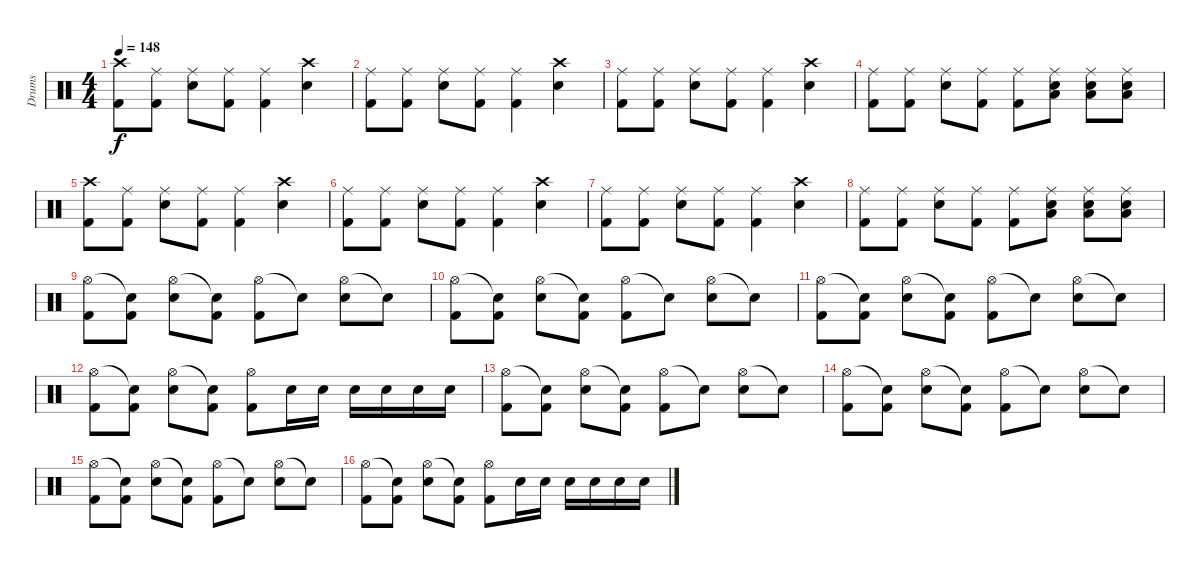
\track ("Drums" "Drums") {instrument percussion}
\staff {score}
\articulation defaults
\ts (4 4)
\tempo 148
\clef neutral
\ks c
("Crash high (hit)" "Kick (hit) 2").8{dy f} ("Ride (middle)" "Kick (hit) 2").8 ("Ride (middle)" "Snare (hit) 2").8 ("Ride (middle)" "Kick (hit) 2").8 ("Ride (middle)" "Kick (hit) 2").4 ("Crash high (hit)" "Snare (hit) 2").4 |
("Ride (middle)" "Kick (hit) 2").8 ("Ride (middle)" "Kick (hit) 2").8 ("Ride (middle)" "Snare (hit) 2").8 ("Ride (middle)" "Kick (hit) 2").8 ("Ride (middle)" "Kick (hit) 2").4 ("Crash high (hit)" "Snare (hit) 2").4 |
("Ride (middle)" "Kick (hit) 2").8 ("Ride (middle)" "Kick (hit) 2").8 ("Ride (middle)" "Snare (hit) 2").8 ("Ride (middle)" "Kick (hit) 2").8 ("Ride (middle)" "Kick (hit) 2").4 ("Crash high (hit)" "Snare (hit) 2").4 |
("Ride (middle)" "Kick (hit) 2").8 ("Ride (middle)" "Kick (hit) 2").8 ("Ride (middle)" "Snare (hit) 2").8 ("Ride (middle)" "Kick (hit) 2").8 ("Ride (middle)" "Kick (hit) 2").8 ("Ride (middle)" "Low Floor Tom (hit)" "Snare (hit) 2").8 ("Ride (middle)" "Low Floor Tom (hit)" "Snare (hit) 2").8 ("Ride (middle)" "Low Floor Tom (hit)" "Snare (hit) 2").8 |
("Crash high (hit)" "Kick (hit) 2").8 ("Ride (middle)" "Kick (hit) 2").8 ("Ride (middle)" "Snare (hit) 2").8 ("Ride (middle)" "Kick (hit) 2").8 ("Ride (middle)" "Kick (hit) 2").4 ("Crash high (hit)" "Snare (hit) 2").4 |
("Ride (middle)" "Kick (hit) 2").8 ("Ride (middle)" "Kick (hit) 2").8 ("Ride (middle)" "Snare (hit) 2").8 ("Ride (middle)" "Kick (hit) 2").8 ("Ride (middle)" "Kick (hit) 2").4 ("Crash high (hit)" "Snare (hit) 2").4 |
("Ride (middle)" "Kick (hit) 2").8 ("Ride (middle)" "Kick (hit) 2").8 ("Ride (middle)" "Snare (hit) 2").8 ("Ride (middle)" "Kick (hit) 2").8 ("Ride (middle)" "Kick (hit) 2").4 ("Crash high (hit)" "Snare (hit) 2").4 |
("Ride (middle)" "Kick (hit) 2").8 ("Ride (middle)" "Kick (hit) 2").8 ("Ride (middle)" "Snare (hit) 2").8 ("Ride (middle)" "Kick (hit) 2").8 ("Ride (middle)" "Kick (hit) 2").8 ("Ride (middle)" "Low Floor Tom (hit)" "Snare (hit) 2").8 ("Ride (middle)" "Low Floor Tom (hit)" "Snare (hit) 2").8 ("Ride (middle)" "Low Floor Tom (hit)" "Snare (hit) 2").8 |
("Hi-Hat (open)" "Kick (hit) 2").8 ("Snare (hit)"{t} "Kick (hit) 2").8 ("Hi-Hat (open)" "Snare (hit) 2").8 ("Snare (hit)"{t} "Kick (hit) 2").8 ("Hi-Hat (open)" "Kick (hit) 2").8 "Snare (hit)"{t}.8 ("Hi-Hat (open)" "Snare (hit) 2").8 "Snare (hit)"{t}.8 |
("Hi-Hat (open)" "Kick (hit) 2").8 ("Snare (hit)"{t} "Kick (hit) 2").8 ("Hi-Hat (open)" "Snare (hit) 2").8 ("Snare (hit)"{t} "Kick (hit) 2").8 ("Hi-Hat (open)" "Kick (hit) 2").8 "Snare (hit)"{t}.8 ("Hi-Hat (open)" "Snare (hit) 2").8 "Snare (hit)"{t}.8 |
("Hi-Hat (open)" "Kick (hit) 2").8 ("Snare (hit)"{t} "Kick (hit) 2").8 ("Hi-Hat (open)" "Snare (hit) 2").8 ("Snare (hit)"{t} "Kick (hit) 2").8 ("Hi-Hat (open)" "Kick (hit) 2").8 "Snare (hit)"{t}.8 ("Hi-Hat (open)" "Snare (hit) 2").8 "Snare (hit)"{t}.8 |
("Hi-Hat (open)" "Kick (hit) 2").8 ("Snare (hit)"{t} "Kick (hit) 2").8 ("Hi-Hat (open)" "Snare (hit) 2").8 ("Snare (hit)"{t} "Kick (hit) 2").8 ("Hi-Hat (open)" "Kick (hit) 2").8 "Snare (hit) 2".16 "Snare (hit) 2".16 "Snare (hit) 2".16 "Snare (hit) 2".16 "Snare (hit) 2".16 "Snare (hit) 2".16 |
("Hi-Hat (open)" "Kick (hit) 2").8 ("Snare (hit)"{t} "Kick (hit) 2").8 ("Hi-Hat (open)" "Snare (hit) 2").8 ("Snare (hit)"{t} "Kick (hit) 2").8 ("Hi-Hat (open)" "Kick (hit) 2").8 "Snare (hit)"{t}.8 ("Hi-Hat (open)" "Snare (hit) 2").8 "Snare (hit)"{t}.8 |
("Hi-Hat (open)" "Kick (hit) 2").8 ("Snare (hit)"{t} "Kick (hit) 2").8 ("Hi-Hat (open)" "Snare (hit) 2").8 ("Snare (hit)"{t} "Kick (hit) 2").8 ("Hi-Hat (open)" "Kick (hit) 2").8 "Snare (hit)"{t}.8 ("Hi-Hat (open)" "Snare (hit) 2").8 "Snare (hit)"{t}.8 |
("Hi-Hat (open)" "Kick (hit) 2").8 ("Snare (hit)"{t} "Kick (hit) 2").8 ("Hi-Hat (open)" "Snare (hit) 2").8 ("Snare (hit)"{t} "Kick (hit) 2").8 ("Hi-Hat (open)" "Kick (hit) 2").8 "Snare (hit)"{t}.8 ("Hi-Hat (open)" "Snare (hit) 2").8 "Snare (hit)"{t}.8 |
("Hi-Hat (open)" "Kick (hit) 2").8 ("Snare (hit)"{t} "Kick (hit) 2").8 ("Hi-Hat (open)" "Snare (hit) 2").8 ("Snare (hit)"{t} "Kick (hit) 2").8 ("Hi-Hat (open)" "Kick (hit) 2").8 "Snare (hit) 2".16 "Snare (hit) 2".16 "Snare (hit) 2".16 "Snare (hit) 2".16 "Snare (hit) 2".16 "Snare (hit) 2".16
